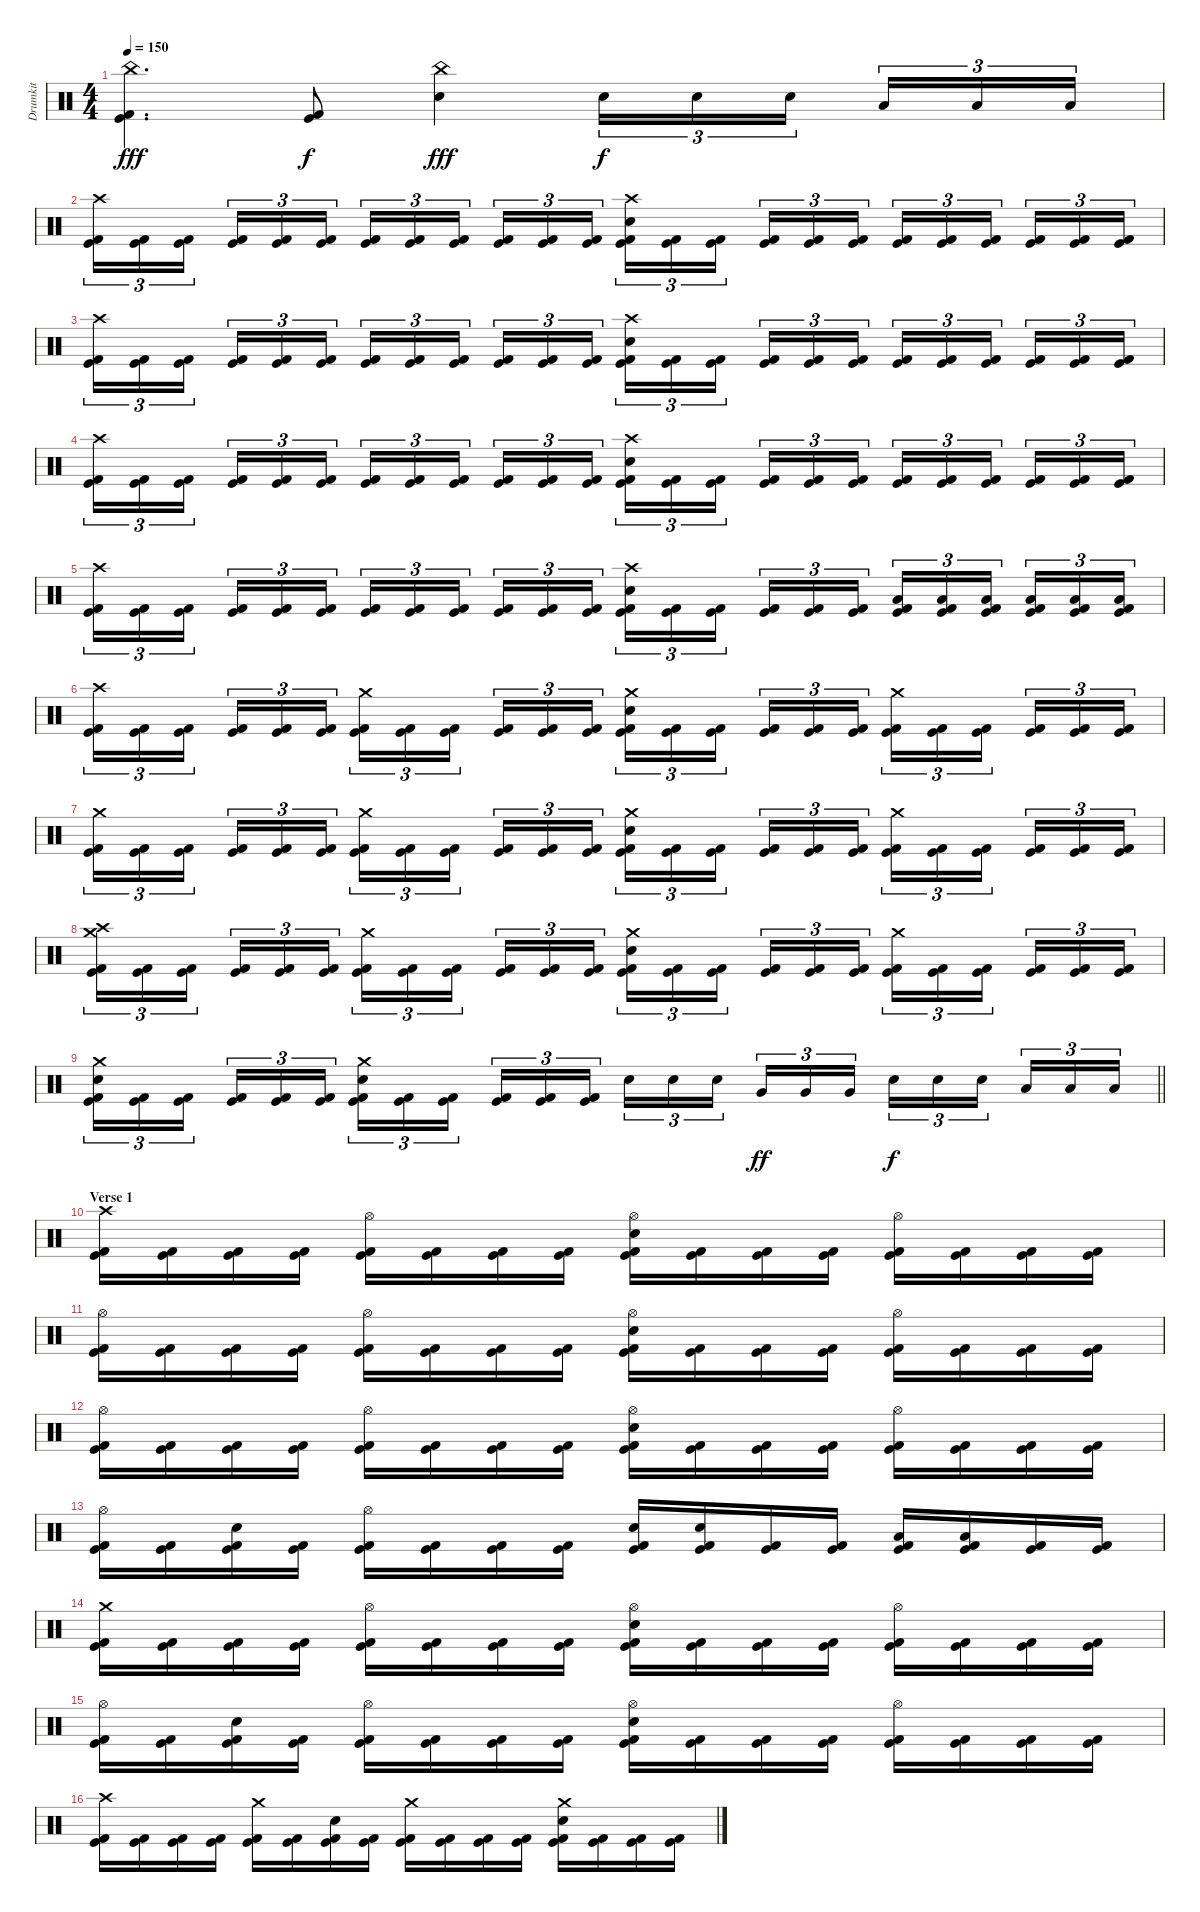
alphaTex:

\track ("Drumkit" "Drumkit") {instrument percussion}
\staff {score}
\articulation defaults
\ts (4 4)
\tempo 150
\clef neutral
\ks c
("China (hit)" "Kick (hit)" "Kick (hit) 2").4{d dy fff} ("Kick (hit)" "Kick (hit) 2").8{dy f} ("China (hit)" "Electric Snare (hit)").4{dy fff} "Electric Snare (hit)".16{tu (3 2) dy f} "Electric Snare (hit)".16{tu (3 2)} "Electric Snare (hit)".16{tu (3 2) beam splitsecondary} "Low Tom (hit)".16{tu (3 2)} "Low Tom (hit)".16{tu (3 2)} "Low Tom (hit)".16{tu (3 2)} |
("Crash high (hit)" "Kick (hit)" "Kick (hit) 2").16{tu (3 2)} ("Kick (hit)" "Kick (hit) 2").16{tu (3 2)} ("Kick (hit)" "Kick (hit) 2").16{tu (3 2) beam splitsecondary} ("Kick (hit)" "Kick (hit) 2").16{tu (3 2)} ("Kick (hit)" "Kick (hit) 2").16{tu (3 2)} ("Kick (hit)" "Kick (hit) 2").16{tu (3 2)} ("Kick (hit)" "Kick (hit) 2").16{tu (3 2)} ("Kick (hit)" "Kick (hit) 2").16{tu (3 2)} ("Kick (hit)" "Kick (hit) 2").16{tu (3 2) beam splitsecondary} ("Kick (hit)" "Kick (hit) 2").16{tu (3 2)} ("Kick (hit)" "Kick (hit) 2").16{tu (3 2)} ("Kick (hit)" "Kick (hit) 2").16{tu (3 2)} ("Crash high (hit)" "Electric Snare (hit)" "Kick (hit)" "Kick (hit) 2").16{tu (3 2)} ("Kick (hit)" "Kick (hit) 2").16{tu (3 2)} ("Kick (hit)" "Kick (hit) 2").16{tu (3 2) beam splitsecondary} ("Kick (hit)" "Kick (hit) 2").16{tu (3 2)} ("Kick (hit)" "Kick (hit) 2").16{tu (3 2)} ("Kick (hit)" "Kick (hit) 2").16{tu (3 2)} ("Kick (hit)" "Kick (hit) 2").16{tu (3 2)} ("Kick (hit)" "Kick (hit) 2").16{tu (3 2)} ("Kick (hit)" "Kick (hit) 2").16{tu (3 2) beam splitsecondary} ("Kick (hit)" "Kick (hit) 2").16{tu (3 2)} ("Kick (hit)" "Kick (hit) 2").16{tu (3 2)} ("Kick (hit)" "Kick (hit) 2").16{tu (3 2)} |
("Crash high (hit)" "Kick (hit)" "Kick (hit) 2").16{tu (3 2)} ("Kick (hit)" "Kick (hit) 2").16{tu (3 2)} ("Kick (hit)" "Kick (hit) 2").16{tu (3 2) beam splitsecondary} ("Kick (hit)" "Kick (hit) 2").16{tu (3 2)} ("Kick (hit)" "Kick (hit) 2").16{tu (3 2)} ("Kick (hit)" "Kick (hit) 2").16{tu (3 2)} ("Kick (hit)" "Kick (hit) 2").16{tu (3 2)} ("Kick (hit)" "Kick (hit) 2").16{tu (3 2)} ("Kick (hit)" "Kick (hit) 2").16{tu (3 2) beam splitsecondary} ("Kick (hit)" "Kick (hit) 2").16{tu (3 2)} ("Kick (hit)" "Kick (hit) 2").16{tu (3 2)} ("Kick (hit)" "Kick (hit) 2").16{tu (3 2)} ("Crash high (hit)" "Electric Snare (hit)" "Kick (hit)" "Kick (hit) 2").16{tu (3 2)} ("Kick (hit)" "Kick (hit) 2").16{tu (3 2)} ("Kick (hit)" "Kick (hit) 2").16{tu (3 2) beam splitsecondary} ("Kick (hit)" "Kick (hit) 2").16{tu (3 2)} ("Kick (hit)" "Kick (hit) 2").16{tu (3 2)} ("Kick (hit)" "Kick (hit) 2").16{tu (3 2)} ("Kick (hit)" "Kick (hit) 2").16{tu (3 2)} ("Kick (hit)" "Kick (hit) 2").16{tu (3 2)} ("Kick (hit)" "Kick (hit) 2").16{tu (3 2) beam splitsecondary} ("Kick (hit)" "Kick (hit) 2").16{tu (3 2)} ("Kick (hit)" "Kick (hit) 2").16{tu (3 2)} ("Kick (hit)" "Kick (hit) 2").16{tu (3 2)} |
("Crash high (hit)" "Kick (hit)" "Kick (hit) 2").16{tu (3 2)} ("Kick (hit)" "Kick (hit) 2").16{tu (3 2)} ("Kick (hit)" "Kick (hit) 2").16{tu (3 2) beam splitsecondary} ("Kick (hit)" "Kick (hit) 2").16{tu (3 2)} ("Kick (hit)" "Kick (hit) 2").16{tu (3 2)} ("Kick (hit)" "Kick (hit) 2").16{tu (3 2)} ("Kick (hit)" "Kick (hit) 2").16{tu (3 2)} ("Kick (hit)" "Kick (hit) 2").16{tu (3 2)} ("Kick (hit)" "Kick (hit) 2").16{tu (3 2) beam splitsecondary} ("Kick (hit)" "Kick (hit) 2").16{tu (3 2)} ("Kick (hit)" "Kick (hit) 2").16{tu (3 2)} ("Kick (hit)" "Kick (hit) 2").16{tu (3 2)} ("Crash high (hit)" "Electric Snare (hit)" "Kick (hit)" "Kick (hit) 2").16{tu (3 2)} ("Kick (hit)" "Kick (hit) 2").16{tu (3 2)} ("Kick (hit)" "Kick (hit) 2").16{tu (3 2) beam splitsecondary} ("Kick (hit)" "Kick (hit) 2").16{tu (3 2)} ("Kick (hit)" "Kick (hit) 2").16{tu (3 2)} ("Kick (hit)" "Kick (hit) 2").16{tu (3 2)} ("Kick (hit)" "Kick (hit) 2").16{tu (3 2)} ("Kick (hit)" "Kick (hit) 2").16{tu (3 2)} ("Kick (hit)" "Kick (hit) 2").16{tu (3 2) beam splitsecondary} ("Kick (hit)" "Kick (hit) 2").16{tu (3 2)} ("Kick (hit)" "Kick (hit) 2").16{tu (3 2)} ("Kick (hit)" "Kick (hit) 2").16{tu (3 2)} |
("Crash high (hit)" "Kick (hit)" "Kick (hit) 2").16{tu (3 2)} ("Kick (hit)" "Kick (hit) 2").16{tu (3 2)} ("Kick (hit)" "Kick (hit) 2").16{tu (3 2) beam splitsecondary} ("Kick (hit)" "Kick (hit) 2").16{tu (3 2)} ("Kick (hit)" "Kick (hit) 2").16{tu (3 2)} ("Kick (hit)" "Kick (hit) 2").16{tu (3 2)} ("Kick (hit)" "Kick (hit) 2").16{tu (3 2)} ("Kick (hit)" "Kick (hit) 2").16{tu (3 2)} ("Kick (hit)" "Kick (hit) 2").16{tu (3 2) beam splitsecondary} ("Kick (hit)" "Kick (hit) 2").16{tu (3 2)} ("Kick (hit)" "Kick (hit) 2").16{tu (3 2)} ("Kick (hit)" "Kick (hit) 2").16{tu (3 2)} ("Crash high (hit)" "Electric Snare (hit)" "Kick (hit)" "Kick (hit) 2").16{tu (3 2)} ("Kick (hit)" "Kick (hit) 2").16{tu (3 2)} ("Kick (hit)" "Kick (hit) 2").16{tu (3 2) beam splitsecondary} ("Kick (hit)" "Kick (hit) 2").16{tu (3 2)} ("Kick (hit)" "Kick (hit) 2").16{tu (3 2)} ("Kick (hit)" "Kick (hit) 2").16{tu (3 2)} ("Low Tom (hit)" "Kick (hit)" "Kick (hit) 2").16{tu (3 2)} ("Low Tom (hit)" "Kick (hit)" "Kick (hit) 2").16{tu (3 2)} ("Low Tom (hit)" "Kick (hit)" "Kick (hit) 2").16{tu (3 2) beam splitsecondary} ("Low Tom (hit)" "Kick (hit)" "Kick (hit) 2").16{tu (3 2)} ("Low Tom (hit)" "Kick (hit)" "Kick (hit) 2").16{tu (3 2)} ("Low Tom (hit)" "Kick (hit)" "Kick (hit) 2").16{tu (3 2)} |
("Crash high (hit)" "Kick (hit)" "Kick (hit) 2").16{tu (3 2)} ("Kick (hit)" "Kick (hit) 2").16{tu (3 2)} ("Kick (hit)" "Kick (hit) 2").16{tu (3 2) beam splitsecondary} ("Kick (hit)" "Kick (hit) 2").16{tu (3 2)} ("Kick (hit)" "Kick (hit) 2").16{tu (3 2)} ("Kick (hit)" "Kick (hit) 2").16{tu (3 2)} ("Crash medium (hit)" "Kick (hit)" "Kick (hit) 2").16{tu (3 2)} ("Kick (hit)" "Kick (hit) 2").16{tu (3 2)} ("Kick (hit)" "Kick (hit) 2").16{tu (3 2) beam splitsecondary} ("Kick (hit)" "Kick (hit) 2").16{tu (3 2)} ("Kick (hit)" "Kick (hit) 2").16{tu (3 2)} ("Kick (hit)" "Kick (hit) 2").16{tu (3 2)} ("Crash medium (hit)" "Electric Snare (hit)" "Kick (hit)" "Kick (hit) 2").16{tu (3 2)} ("Kick (hit)" "Kick (hit) 2").16{tu (3 2)} ("Kick (hit)" "Kick (hit) 2").16{tu (3 2) beam splitsecondary} ("Kick (hit)" "Kick (hit) 2").16{tu (3 2)} ("Kick (hit)" "Kick (hit) 2").16{tu (3 2)} ("Kick (hit)" "Kick (hit) 2").16{tu (3 2)} ("Crash medium (hit)" "Kick (hit)" "Kick (hit) 2").16{tu (3 2)} ("Kick (hit)" "Kick (hit) 2").16{tu (3 2)} ("Kick (hit)" "Kick (hit) 2").16{tu (3 2) beam splitsecondary} ("Kick (hit)" "Kick (hit) 2").16{tu (3 2)} ("Kick (hit)" "Kick (hit) 2").16{tu (3 2)} ("Kick (hit)" "Kick (hit) 2").16{tu (3 2)} |
("Crash medium (hit)" "Kick (hit)" "Kick (hit) 2").16{tu (3 2)} ("Kick (hit)" "Kick (hit) 2").16{tu (3 2)} ("Kick (hit)" "Kick (hit) 2").16{tu (3 2) beam splitsecondary} ("Kick (hit)" "Kick (hit) 2").16{tu (3 2)} ("Kick (hit)" "Kick (hit) 2").16{tu (3 2)} ("Kick (hit)" "Kick (hit) 2").16{tu (3 2)} ("Crash medium (hit)" "Kick (hit)" "Kick (hit) 2").16{tu (3 2)} ("Kick (hit)" "Kick (hit) 2").16{tu (3 2)} ("Kick (hit)" "Kick (hit) 2").16{tu (3 2) beam splitsecondary} ("Kick (hit)" "Kick (hit) 2").16{tu (3 2)} ("Kick (hit)" "Kick (hit) 2").16{tu (3 2)} ("Kick (hit)" "Kick (hit) 2").16{tu (3 2)} ("Crash medium (hit)" "Electric Snare (hit)" "Kick (hit)" "Kick (hit) 2").16{tu (3 2)} ("Kick (hit)" "Kick (hit) 2").16{tu (3 2)} ("Kick (hit)" "Kick (hit) 2").16{tu (3 2) beam splitsecondary} ("Kick (hit)" "Kick (hit) 2").16{tu (3 2)} ("Kick (hit)" "Kick (hit) 2").16{tu (3 2)} ("Kick (hit)" "Kick (hit) 2").16{tu (3 2)} ("Crash medium (hit)" "Kick (hit)" "Kick (hit) 2").16{tu (3 2)} ("Kick (hit)" "Kick (hit) 2").16{tu (3 2)} ("Kick (hit)" "Kick (hit) 2").16{tu (3 2) beam splitsecondary} ("Kick (hit)" "Kick (hit) 2").16{tu (3 2)} ("Kick (hit)" "Kick (hit) 2").16{tu (3 2)} ("Kick (hit)" "Kick (hit) 2").16{tu (3 2)} |
("Crash high (hit)" "Crash medium (hit)" "Kick (hit)" "Kick (hit) 2").16{tu (3 2)} ("Kick (hit)" "Kick (hit) 2").16{tu (3 2)} ("Kick (hit)" "Kick (hit) 2").16{tu (3 2) beam splitsecondary} ("Kick (hit)" "Kick (hit) 2").16{tu (3 2)} ("Kick (hit)" "Kick (hit) 2").16{tu (3 2)} ("Kick (hit)" "Kick (hit) 2").16{tu (3 2)} ("Crash medium (hit)" "Kick (hit)" "Kick (hit) 2").16{tu (3 2)} ("Kick (hit)" "Kick (hit) 2").16{tu (3 2)} ("Kick (hit)" "Kick (hit) 2").16{tu (3 2) beam splitsecondary} ("Kick (hit)" "Kick (hit) 2").16{tu (3 2)} ("Kick (hit)" "Kick (hit) 2").16{tu (3 2)} ("Kick (hit)" "Kick (hit) 2").16{tu (3 2)} ("Crash medium (hit)" "Electric Snare (hit)" "Kick (hit)" "Kick (hit) 2").16{tu (3 2)} ("Kick (hit)" "Kick (hit) 2").16{tu (3 2)} ("Kick (hit)" "Kick (hit) 2").16{tu (3 2) beam splitsecondary} ("Kick (hit)" "Kick (hit) 2").16{tu (3 2)} ("Kick (hit)" "Kick (hit) 2").16{tu (3 2)} ("Kick (hit)" "Kick (hit) 2").16{tu (3 2)} ("Crash medium (hit)" "Kick (hit)" "Kick (hit) 2").16{tu (3 2)} ("Kick (hit)" "Kick (hit) 2").16{tu (3 2)} ("Kick (hit)" "Kick (hit) 2").16{tu (3 2) beam splitsecondary} ("Kick (hit)" "Kick (hit) 2").16{tu (3 2)} ("Kick (hit)" "Kick (hit) 2").16{tu (3 2)} ("Kick (hit)" "Kick (hit) 2").16{tu (3 2)} |
\barLineRight lightlight
("Crash medium (hit)" "Electric Snare (hit)" "Kick (hit)" "Kick (hit) 2").16{tu (3 2)} ("Kick (hit)" "Kick (hit) 2").16{tu (3 2)} ("Kick (hit)" "Kick (hit) 2").16{tu (3 2) beam splitsecondary} ("Kick (hit)" "Kick (hit) 2").16{tu (3 2)} ("Kick (hit)" "Kick (hit) 2").16{tu (3 2)} ("Kick (hit)" "Kick (hit) 2").16{tu (3 2)} ("Crash medium (hit)" "Electric Snare (hit)" "Kick (hit)" "Kick (hit) 2").16{tu (3 2)} ("Kick (hit)" "Kick (hit) 2").16{tu (3 2)} ("Kick (hit)" "Kick (hit) 2").16{tu (3 2) beam splitsecondary} ("Kick (hit)" "Kick (hit) 2").16{tu (3 2)} ("Kick (hit)" "Kick (hit) 2").16{tu (3 2)} ("Kick (hit)" "Kick (hit) 2").16{tu (3 2)} "Electric Snare (hit)".16{tu (3 2)} "Electric Snare (hit)".16{tu (3 2)} "Electric Snare (hit)".16{tu (3 2) beam splitsecondary} "Very Low Tom (hit)".16{tu (3 2) dy ff} "Very Low Tom (hit)".16{tu (3 2)} "Very Low Tom (hit)".16{tu (3 2)} "Electric Snare (hit)".16{tu (3 2) dy f} "Electric Snare (hit)".16{tu (3 2)} "Electric Snare (hit)".16{tu (3 2) beam splitsecondary} "Low Tom (hit)".16{tu (3 2)} "Low Tom (hit)".16{tu (3 2)} "Low Tom (hit)".16{tu (3 2)} |
\section ("" "Verse 1")
("Crash high (hit)" "Kick (hit)" "Kick (hit) 2").16 ("Kick (hit)" "Kick (hit) 2").16 ("Kick (hit)" "Kick (hit) 2").16 ("Kick (hit)" "Kick (hit) 2").16 ("Hi-Hat (open)" "Kick (hit)" "Kick (hit) 2").16 ("Kick (hit)" "Kick (hit) 2").16 ("Kick (hit)" "Kick (hit) 2").16 ("Kick (hit)" "Kick (hit) 2").16 ("Hi-Hat (open)" "Electric Snare (hit)" "Kick (hit)" "Kick (hit) 2").16 ("Kick (hit)" "Kick (hit) 2").16 ("Kick (hit)" "Kick (hit) 2").16 ("Kick (hit)" "Kick (hit) 2").16 ("Hi-Hat (open)" "Kick (hit)" "Kick (hit) 2").16 ("Kick (hit)" "Kick (hit) 2").16 ("Kick (hit)" "Kick (hit) 2").16 ("Kick (hit)" "Kick (hit) 2").16 |
("Hi-Hat (open)" "Kick (hit)" "Kick (hit) 2").16 ("Kick (hit)" "Kick (hit) 2").16 ("Kick (hit)" "Kick (hit) 2").16 ("Kick (hit)" "Kick (hit) 2").16 ("Hi-Hat (open)" "Kick (hit)" "Kick (hit) 2").16 ("Kick (hit)" "Kick (hit) 2").16 ("Kick (hit)" "Kick (hit) 2").16 ("Kick (hit)" "Kick (hit) 2").16 ("Hi-Hat (open)" "Electric Snare (hit)" "Kick (hit)" "Kick (hit) 2").16 ("Kick (hit)" "Kick (hit) 2").16 ("Kick (hit)" "Kick (hit) 2").16 ("Kick (hit)" "Kick (hit) 2").16 ("Hi-Hat (open)" "Kick (hit)" "Kick (hit) 2").16 ("Kick (hit)" "Kick (hit) 2").16 ("Kick (hit)" "Kick (hit) 2").16 ("Kick (hit)" "Kick (hit) 2").16 |
("Hi-Hat (open)" "Kick (hit)" "Kick (hit) 2").16 ("Kick (hit)" "Kick (hit) 2").16 ("Kick (hit)" "Kick (hit) 2").16 ("Kick (hit)" "Kick (hit) 2").16 ("Hi-Hat (open)" "Kick (hit)" "Kick (hit) 2").16 ("Kick (hit)" "Kick (hit) 2").16 ("Kick (hit)" "Kick (hit) 2").16 ("Kick (hit)" "Kick (hit) 2").16 ("Hi-Hat (open)" "Electric Snare (hit)" "Kick (hit)" "Kick (hit) 2").16 ("Kick (hit)" "Kick (hit) 2").16 ("Kick (hit)" "Kick (hit) 2").16 ("Kick (hit)" "Kick (hit) 2").16 ("Hi-Hat (open)" "Kick (hit)" "Kick (hit) 2").16 ("Kick (hit)" "Kick (hit) 2").16 ("Kick (hit)" "Kick (hit) 2").16 ("Kick (hit)" "Kick (hit) 2").16 |
("Hi-Hat (open)" "Kick (hit)" "Kick (hit) 2").16 ("Kick (hit)" "Kick (hit) 2").16 ("Electric Snare (hit)" "Kick (hit)" "Kick (hit) 2").16 ("Kick (hit)" "Kick (hit) 2").16 ("Hi-Hat (open)" "Kick (hit)" "Kick (hit) 2").16 ("Kick (hit)" "Kick (hit) 2").16 ("Kick (hit)" "Kick (hit) 2").16 ("Kick (hit)" "Kick (hit) 2").16 ("Electric Snare (hit)" "Kick (hit)" "Kick (hit) 2").16 ("Electric Snare (hit)" "Kick (hit)" "Kick (hit) 2").16 ("Kick (hit)" "Kick (hit) 2").16 ("Kick (hit)" "Kick (hit) 2").16 ("Low Tom (hit)" "Kick (hit)" "Kick (hit) 2").16 ("Low Tom (hit)" "Kick (hit)" "Kick (hit) 2").16 ("Kick (hit)" "Kick (hit) 2").16 ("Kick (hit)" "Kick (hit) 2").16 |
("Crash medium (hit)" "Kick (hit)" "Kick (hit) 2").16 ("Kick (hit)" "Kick (hit) 2").16 ("Kick (hit)" "Kick (hit) 2").16 ("Kick (hit)" "Kick (hit) 2").16 ("Hi-Hat (open)" "Kick (hit)" "Kick (hit) 2").16 ("Kick (hit)" "Kick (hit) 2").16 ("Kick (hit)" "Kick (hit) 2").16 ("Kick (hit)" "Kick (hit) 2").16 ("Hi-Hat (open)" "Electric Snare (hit)" "Kick (hit)" "Kick (hit) 2").16 ("Kick (hit)" "Kick (hit) 2").16 ("Kick (hit)" "Kick (hit) 2").16 ("Kick (hit)" "Kick (hit) 2").16 ("Hi-Hat (open)" "Kick (hit)" "Kick (hit) 2").16 ("Kick (hit)" "Kick (hit) 2").16 ("Kick (hit)" "Kick (hit) 2").16 ("Kick (hit)" "Kick (hit) 2").16 |
("Hi-Hat (open)" "Kick (hit)" "Kick (hit) 2").16 ("Kick (hit)" "Kick (hit) 2").16 ("Electric Snare (hit)" "Kick (hit)" "Kick (hit) 2").16 ("Kick (hit)" "Kick (hit) 2").16 ("Hi-Hat (open)" "Kick (hit)" "Kick (hit) 2").16 ("Kick (hit)" "Kick (hit) 2").16 ("Kick (hit)" "Kick (hit) 2").16 ("Kick (hit)" "Kick (hit) 2").16 ("Hi-Hat (open)" "Electric Snare (hit)" "Kick (hit)" "Kick (hit) 2").16 ("Kick (hit)" "Kick (hit) 2").16 ("Kick (hit)" "Kick (hit) 2").16 ("Kick (hit)" "Kick (hit) 2").16 ("Hi-Hat (open)" "Kick (hit)" "Kick (hit) 2").16 ("Kick (hit)" "Kick (hit) 2").16 ("Kick (hit)" "Kick (hit) 2").16 ("Kick (hit)" "Kick (hit) 2").16 |
("Crash high (hit)" "Kick (hit)" "Kick (hit) 2").16 ("Kick (hit)" "Kick (hit) 2").16 ("Kick (hit)" "Kick (hit) 2").16 ("Kick (hit)" "Kick (hit) 2").16 ("Crash medium (hit)" "Kick (hit)" "Kick (hit) 2").16 ("Kick (hit)" "Kick (hit) 2").16 ("Electric Snare (hit)" "Kick (hit)" "Kick (hit) 2").16 ("Kick (hit)" "Kick (hit) 2").16 ("Crash medium (hit)" "Kick (hit)" "Kick (hit) 2").16 ("Kick (hit)" "Kick (hit) 2").16 ("Kick (hit)" "Kick (hit) 2").16 ("Kick (hit)" "Kick (hit) 2").16 ("Crash medium (hit)" "Electric Snare (hit)" "Kick (hit)" "Kick (hit) 2").16 ("Kick (hit)" "Kick (hit) 2").16 ("Kick (hit)" "Kick (hit) 2").16 ("Kick (hit)" "Kick (hit) 2").16
